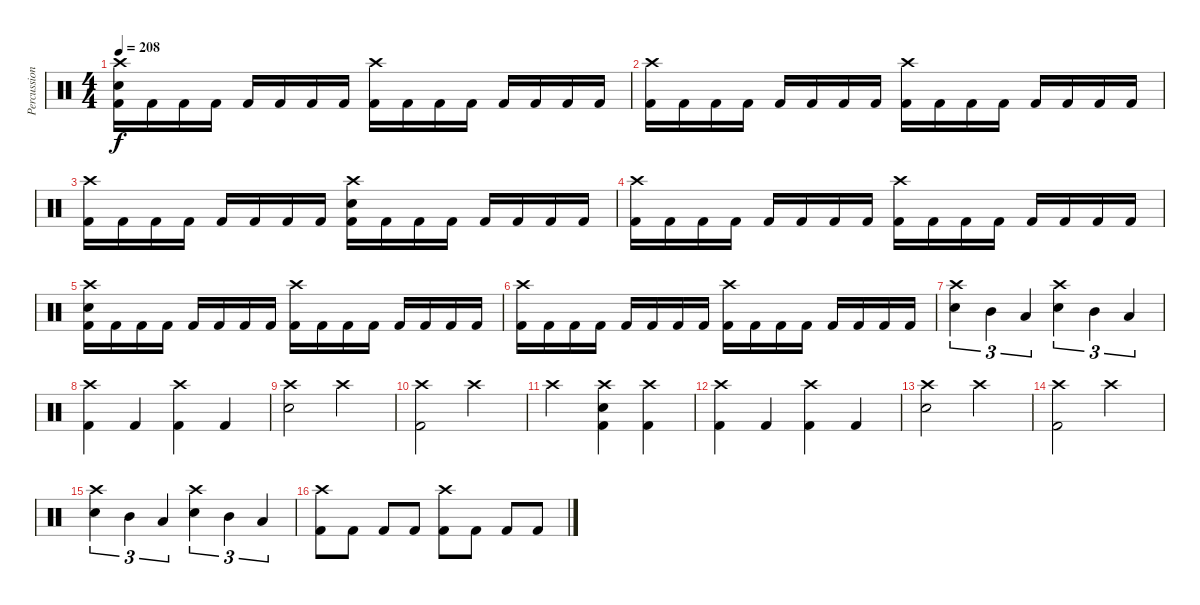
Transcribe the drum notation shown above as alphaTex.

\track ("Percussion" "Percussion") {instrument percussion}
\staff {score}
\articulation defaults
\ts (4 4)
\tempo 208
\clef neutral
\ks c
("Crash high (hit)" "Electric Snare (hit)" "Kick (hit) 2").16{dy f} "Kick (hit) 2".16 "Kick (hit) 2".16 "Kick (hit) 2".16 "Kick (hit) 2".16 "Kick (hit) 2".16 "Kick (hit) 2".16 "Kick (hit) 2".16 ("Crash high (hit)" "Kick (hit) 2").16 "Kick (hit) 2".16 "Kick (hit) 2".16 "Kick (hit) 2".16 "Kick (hit) 2".16 "Kick (hit) 2".16 "Kick (hit) 2".16 "Kick (hit) 2".16 |
("Crash high (hit)" "Kick (hit) 2").16 "Kick (hit) 2".16 "Kick (hit) 2".16 "Kick (hit) 2".16 "Kick (hit) 2".16 "Kick (hit) 2".16 "Kick (hit) 2".16 "Kick (hit) 2".16 ("Crash high (hit)" "Kick (hit) 2").16 "Kick (hit) 2".16 "Kick (hit) 2".16 "Kick (hit) 2".16 "Kick (hit) 2".16 "Kick (hit) 2".16 "Kick (hit) 2".16 "Kick (hit) 2".16 |
("Crash high (hit)" "Kick (hit) 2").16 "Kick (hit) 2".16 "Kick (hit) 2".16 "Kick (hit) 2".16 "Kick (hit) 2".16 "Kick (hit) 2".16 "Kick (hit) 2".16 "Kick (hit) 2".16 ("Crash high (hit)" "Electric Snare (hit)" "Kick (hit) 2").16 "Kick (hit) 2".16 "Kick (hit) 2".16 "Kick (hit) 2".16 "Kick (hit) 2".16 "Kick (hit) 2".16 "Kick (hit) 2".16 "Kick (hit) 2".16 |
("Crash high (hit)" "Kick (hit) 2").16 "Kick (hit) 2".16 "Kick (hit) 2".16 "Kick (hit) 2".16 "Kick (hit) 2".16 "Kick (hit) 2".16 "Kick (hit) 2".16 "Kick (hit) 2".16 ("Crash high (hit)" "Kick (hit) 2").16 "Kick (hit) 2".16 "Kick (hit) 2".16 "Kick (hit) 2".16 "Kick (hit) 2".16 "Kick (hit) 2".16 "Kick (hit) 2".16 "Kick (hit) 2".16 |
("Crash high (hit)" "Electric Snare (hit)" "Kick (hit) 2").16 "Kick (hit) 2".16 "Kick (hit) 2".16 "Kick (hit) 2".16 "Kick (hit) 2".16 "Kick (hit) 2".16 "Kick (hit) 2".16 "Kick (hit) 2".16 ("Crash high (hit)" "Kick (hit) 2").16 "Kick (hit) 2".16 "Kick (hit) 2".16 "Kick (hit) 2".16 "Kick (hit) 2".16 "Kick (hit) 2".16 "Kick (hit) 2".16 "Kick (hit) 2".16 |
("Crash high (hit)" "Kick (hit) 2").16 "Kick (hit) 2".16 "Kick (hit) 2".16 "Kick (hit) 2".16 "Kick (hit) 2".16 "Kick (hit) 2".16 "Kick (hit) 2".16 "Kick (hit) 2".16 ("Crash high (hit)" "Kick (hit) 2").16 "Kick (hit) 2".16 "Kick (hit) 2".16 "Kick (hit) 2".16 "Kick (hit) 2".16 "Kick (hit) 2".16 "Kick (hit) 2".16 "Kick (hit) 2".16 |
("Crash high (hit)" "Electric Snare (hit)").4{tu (3 2)} "Mid Tom (hit)".4{tu (3 2)} "Low Tom (hit)".4{tu (3 2)} ("Crash high (hit)" "Electric Snare (hit)").4{tu (3 2)} "Mid Tom (hit)".4{tu (3 2)} "Low Tom (hit)".4{tu (3 2)} |
("Crash high (hit)" "Kick (hit) 2").4 "Kick (hit) 2".4 ("Crash high (hit)" "Kick (hit) 2").4 "Kick (hit) 2".4 |
("Crash high (hit)" "Electric Snare (hit)").2 "Crash high (hit)".2 |
("Crash high (hit)" "Kick (hit) 2").2 "Crash high (hit)".2 |
"Crash high (hit)".2 ("Crash high (hit)" "Electric Snare (hit)" "Kick (hit) 2").4 ("Crash high (hit)" "Kick (hit) 2").4 |
("Crash high (hit)" "Kick (hit) 2").4 "Kick (hit) 2".4 ("Crash high (hit)" "Kick (hit) 2").4 "Kick (hit) 2".4 |
("Crash high (hit)" "Electric Snare (hit)").2 "Crash high (hit)".2 |
("Crash high (hit)" "Kick (hit) 2").2 "Crash high (hit)".2 |
("Crash high (hit)" "Electric Snare (hit)").4{tu (3 2)} "Mid Tom (hit)".4{tu (3 2)} "Low Tom (hit)".4{tu (3 2)} ("Crash high (hit)" "Electric Snare (hit)").4{tu (3 2)} "Mid Tom (hit)".4{tu (3 2)} "Low Tom (hit)".4{tu (3 2)} |
("Crash high (hit)" "Kick (hit) 2").8 "Kick (hit) 2".8 "Kick (hit) 2".8 "Kick (hit) 2".8 ("Crash high (hit)" "Kick (hit) 2").8 "Kick (hit) 2".8 "Kick (hit) 2".8 "Kick (hit) 2".8
